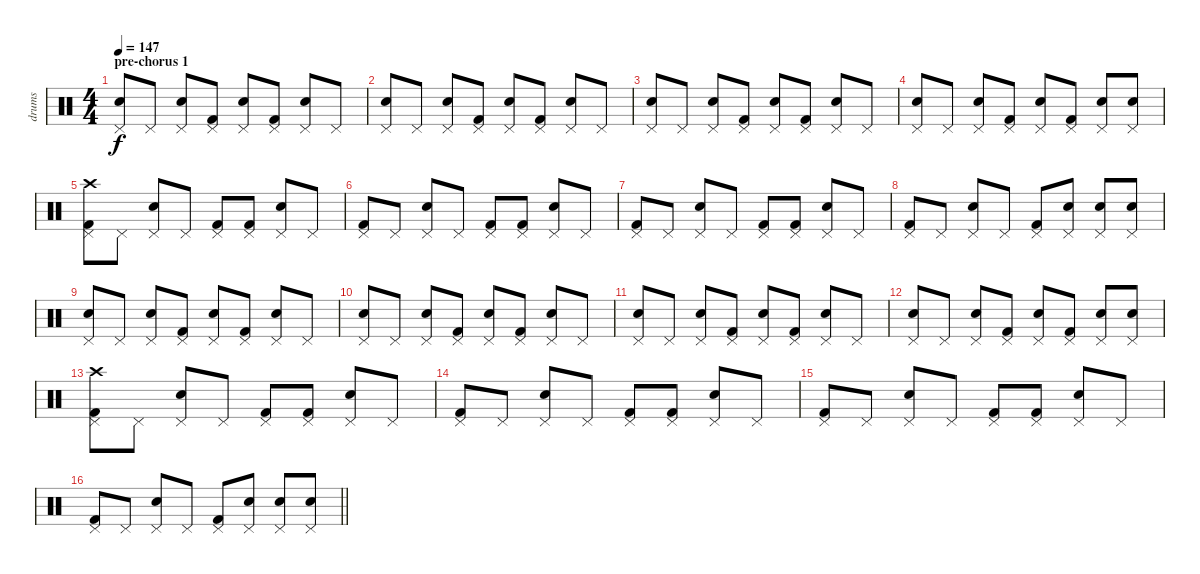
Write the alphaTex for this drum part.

\track ("drums" "drums") {instrument percussion}
\staff {score}
\articulation defaults
\ts (4 4)
\section ("" "pre-chorus 1")
\tempo 147
\clef neutral
\ks c
("Snare (hit) 2" "Pedal Hi-Hat (hit)").8{dy f} "Pedal Hi-Hat (hit)".8 ("Snare (hit) 2" "Pedal Hi-Hat (hit)").8 ("Kick (hit) 2" "Pedal Hi-Hat (hit)").8 ("Snare (hit) 2" "Pedal Hi-Hat (hit)").8 ("Kick (hit) 2" "Pedal Hi-Hat (hit)").8 ("Snare (hit) 2" "Pedal Hi-Hat (hit)").8 "Pedal Hi-Hat (hit)".8 |
("Snare (hit) 2" "Pedal Hi-Hat (hit)").8 "Pedal Hi-Hat (hit)".8 ("Snare (hit) 2" "Pedal Hi-Hat (hit)").8 ("Kick (hit) 2" "Pedal Hi-Hat (hit)").8 ("Snare (hit) 2" "Pedal Hi-Hat (hit)").8 ("Kick (hit) 2" "Pedal Hi-Hat (hit)").8 ("Snare (hit) 2" "Pedal Hi-Hat (hit)").8 "Pedal Hi-Hat (hit)".8 |
("Snare (hit) 2" "Pedal Hi-Hat (hit)").8 "Pedal Hi-Hat (hit)".8 ("Snare (hit) 2" "Pedal Hi-Hat (hit)").8 ("Kick (hit) 2" "Pedal Hi-Hat (hit)").8 ("Snare (hit) 2" "Pedal Hi-Hat (hit)").8 ("Kick (hit) 2" "Pedal Hi-Hat (hit)").8 ("Snare (hit) 2" "Pedal Hi-Hat (hit)").8 "Pedal Hi-Hat (hit)".8 |
("Snare (hit) 2" "Pedal Hi-Hat (hit)").8 "Pedal Hi-Hat (hit)".8 ("Snare (hit) 2" "Pedal Hi-Hat (hit)").8 ("Kick (hit) 2" "Pedal Hi-Hat (hit)").8 ("Snare (hit) 2" "Pedal Hi-Hat (hit)").8 ("Kick (hit) 2" "Pedal Hi-Hat (hit)").8 ("Snare (hit) 2" "Pedal Hi-Hat (hit)").8 ("Snare (hit) 2" "Pedal Hi-Hat (hit)").8 |
("Kick (hit) 2" "Crash high (hit)" "Pedal Hi-Hat (hit)").8 "Pedal Hi-Hat (hit)".8 ("Snare (hit) 2" "Pedal Hi-Hat (hit)").8 "Pedal Hi-Hat (hit)".8 ("Kick (hit) 2" "Pedal Hi-Hat (hit)").8 ("Kick (hit) 2" "Pedal Hi-Hat (hit)").8 ("Snare (hit) 2" "Pedal Hi-Hat (hit)").8 "Pedal Hi-Hat (hit)".8 |
("Kick (hit) 2" "Pedal Hi-Hat (hit)").8 "Pedal Hi-Hat (hit)".8 ("Snare (hit) 2" "Pedal Hi-Hat (hit)").8 "Pedal Hi-Hat (hit)".8 ("Kick (hit) 2" "Pedal Hi-Hat (hit)").8 ("Kick (hit) 2" "Pedal Hi-Hat (hit)").8 ("Snare (hit) 2" "Pedal Hi-Hat (hit)").8 "Pedal Hi-Hat (hit)".8 |
("Kick (hit) 2" "Pedal Hi-Hat (hit)").8 "Pedal Hi-Hat (hit)".8 ("Snare (hit) 2" "Pedal Hi-Hat (hit)").8 "Pedal Hi-Hat (hit)".8 ("Kick (hit) 2" "Pedal Hi-Hat (hit)").8 ("Kick (hit) 2" "Pedal Hi-Hat (hit)").8 ("Snare (hit) 2" "Pedal Hi-Hat (hit)").8 "Pedal Hi-Hat (hit)".8 |
("Kick (hit) 2" "Pedal Hi-Hat (hit)").8 "Pedal Hi-Hat (hit)".8 ("Snare (hit) 2" "Pedal Hi-Hat (hit)").8 "Pedal Hi-Hat (hit)".8 ("Kick (hit) 2" "Pedal Hi-Hat (hit)").8 ("Snare (hit) 2" "Pedal Hi-Hat (hit)").8 ("Snare (hit) 2" "Pedal Hi-Hat (hit)").8 ("Snare (hit) 2" "Pedal Hi-Hat (hit)").8 |
("Snare (hit) 2" "Pedal Hi-Hat (hit)").8 "Pedal Hi-Hat (hit)".8 ("Snare (hit) 2" "Pedal Hi-Hat (hit)").8 ("Kick (hit) 2" "Pedal Hi-Hat (hit)").8 ("Snare (hit) 2" "Pedal Hi-Hat (hit)").8 ("Kick (hit) 2" "Pedal Hi-Hat (hit)").8 ("Snare (hit) 2" "Pedal Hi-Hat (hit)").8 "Pedal Hi-Hat (hit)".8 |
("Snare (hit) 2" "Pedal Hi-Hat (hit)").8 "Pedal Hi-Hat (hit)".8 ("Snare (hit) 2" "Pedal Hi-Hat (hit)").8 ("Kick (hit) 2" "Pedal Hi-Hat (hit)").8 ("Snare (hit) 2" "Pedal Hi-Hat (hit)").8 ("Kick (hit) 2" "Pedal Hi-Hat (hit)").8 ("Snare (hit) 2" "Pedal Hi-Hat (hit)").8 "Pedal Hi-Hat (hit)".8 |
("Snare (hit) 2" "Pedal Hi-Hat (hit)").8 "Pedal Hi-Hat (hit)".8 ("Snare (hit) 2" "Pedal Hi-Hat (hit)").8 ("Kick (hit) 2" "Pedal Hi-Hat (hit)").8 ("Snare (hit) 2" "Pedal Hi-Hat (hit)").8 ("Kick (hit) 2" "Pedal Hi-Hat (hit)").8 ("Snare (hit) 2" "Pedal Hi-Hat (hit)").8 "Pedal Hi-Hat (hit)".8 |
("Snare (hit) 2" "Pedal Hi-Hat (hit)").8 "Pedal Hi-Hat (hit)".8 ("Snare (hit) 2" "Pedal Hi-Hat (hit)").8 ("Kick (hit) 2" "Pedal Hi-Hat (hit)").8 ("Snare (hit) 2" "Pedal Hi-Hat (hit)").8 ("Kick (hit) 2" "Pedal Hi-Hat (hit)").8 ("Snare (hit) 2" "Pedal Hi-Hat (hit)").8 ("Snare (hit) 2" "Pedal Hi-Hat (hit)").8 |
("Kick (hit) 2" "Crash high (hit)" "Pedal Hi-Hat (hit)").8 "Pedal Hi-Hat (hit)".8 ("Snare (hit) 2" "Pedal Hi-Hat (hit)").8 "Pedal Hi-Hat (hit)".8 ("Kick (hit) 2" "Pedal Hi-Hat (hit)").8 ("Kick (hit) 2" "Pedal Hi-Hat (hit)").8 ("Snare (hit) 2" "Pedal Hi-Hat (hit)").8 "Pedal Hi-Hat (hit)".8 |
("Kick (hit) 2" "Pedal Hi-Hat (hit)").8 "Pedal Hi-Hat (hit)".8 ("Snare (hit) 2" "Pedal Hi-Hat (hit)").8 "Pedal Hi-Hat (hit)".8 ("Kick (hit) 2" "Pedal Hi-Hat (hit)").8 ("Kick (hit) 2" "Pedal Hi-Hat (hit)").8 ("Snare (hit) 2" "Pedal Hi-Hat (hit)").8 "Pedal Hi-Hat (hit)".8 |
("Kick (hit) 2" "Pedal Hi-Hat (hit)").8 "Pedal Hi-Hat (hit)".8 ("Snare (hit) 2" "Pedal Hi-Hat (hit)").8 "Pedal Hi-Hat (hit)".8 ("Kick (hit) 2" "Pedal Hi-Hat (hit)").8 ("Kick (hit) 2" "Pedal Hi-Hat (hit)").8 ("Snare (hit) 2" "Pedal Hi-Hat (hit)").8 "Pedal Hi-Hat (hit)".8 |
\barLineRight lightlight
("Kick (hit) 2" "Pedal Hi-Hat (hit)").8 "Pedal Hi-Hat (hit)".8 ("Snare (hit) 2" "Pedal Hi-Hat (hit)").8 "Pedal Hi-Hat (hit)".8 ("Kick (hit) 2" "Pedal Hi-Hat (hit)").8 ("Snare (hit) 2" "Pedal Hi-Hat (hit)").8 ("Snare (hit) 2" "Pedal Hi-Hat (hit)").8 ("Snare (hit) 2" "Pedal Hi-Hat (hit)").8
